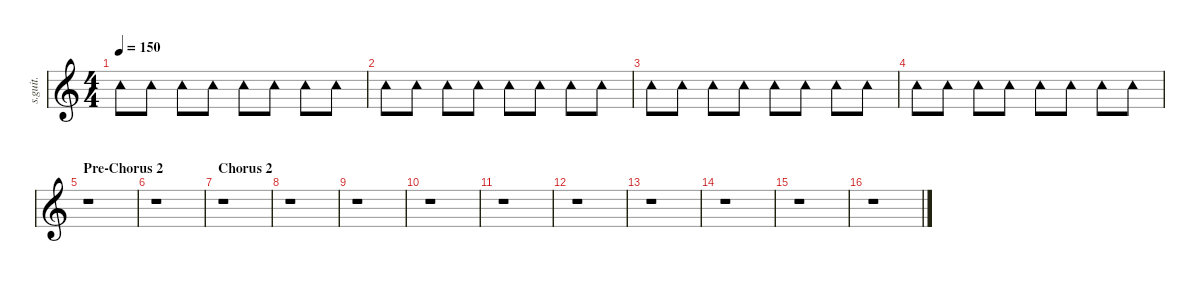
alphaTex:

\defaultSystemsLayout 4
\hideDynamics
\bracketExtendMode nobrackets
\track ("Synth Drums 2" "s.guit.") {instrument percussion}
\staff {score}
\articulation defaults
\ts (4 4)
\tempo 150
\clef g2
\ks c "Tambourine (hit)".8{lyrics (0 "") lyrics (1 "") lyrics (2 "") lyrics (3 "") lyrics (4 "") dy f} "Tambourine (hit)".8{lyrics (0 "") lyrics (1 "") lyrics (2 "") lyrics (3 "") lyrics (4 "")} "Tambourine (hit)".8{lyrics (0 "") lyrics (1 "") lyrics (2 "") lyrics (3 "") lyrics (4 "")} "Tambourine (hit)".8{lyrics (0 "") lyrics (1 "") lyrics (2 "") lyrics (3 "") lyrics (4 "")} "Tambourine (hit)".8{lyrics (0 "") lyrics (1 "") lyrics (2 "") lyrics (3 "") lyrics (4 "")} "Tambourine (hit)".8{lyrics (0 "") lyrics (1 "") lyrics (2 "") lyrics (3 "") lyrics (4 "")} "Tambourine (hit)".8{lyrics (0 "") lyrics (1 "") lyrics (2 "") lyrics (3 "") lyrics (4 "")} "Tambourine (hit)".8{lyrics (0 "") lyrics (1 "") lyrics (2 "") lyrics (3 "") lyrics (4 "")}
|
"Tambourine (hit)".8{lyrics (0 "") lyrics (1 "") lyrics (2 "") lyrics (3 "") lyrics (4 "")} "Tambourine (hit)".8{lyrics (0 "") lyrics (1 "") lyrics (2 "") lyrics (3 "") lyrics (4 "")} "Tambourine (hit)".8{lyrics (0 "") lyrics (1 "") lyrics (2 "") lyrics (3 "") lyrics (4 "")} "Tambourine (hit)".8{lyrics (0 "") lyrics (1 "") lyrics (2 "") lyrics (3 "") lyrics (4 "")} "Tambourine (hit)".8{lyrics (0 "") lyrics (1 "") lyrics (2 "") lyrics (3 "") lyrics (4 "")} "Tambourine (hit)".8{lyrics (0 "") lyrics (1 "") lyrics (2 "") lyrics (3 "") lyrics (4 "")} "Tambourine (hit)".8{lyrics (0 "") lyrics (1 "") lyrics (2 "") lyrics (3 "") lyrics (4 "")} "Tambourine (hit)".8{lyrics (0 "") lyrics (1 "") lyrics (2 "") lyrics (3 "") lyrics (4 "")} |
"Tambourine (hit)".8{lyrics (0 "") lyrics (1 "") lyrics (2 "") lyrics (3 "") lyrics (4 "")} "Tambourine (hit)".8{lyrics (0 "") lyrics (1 "") lyrics (2 "") lyrics (3 "") lyrics (4 "")} "Tambourine (hit)".8{lyrics (0 "") lyrics (1 "") lyrics (2 "") lyrics (3 "") lyrics (4 "")} "Tambourine (hit)".8{lyrics (0 "") lyrics (1 "") lyrics (2 "") lyrics (3 "") lyrics (4 "")} "Tambourine (hit)".8{lyrics (0 "") lyrics (1 "") lyrics (2 "") lyrics (3 "") lyrics (4 "")} "Tambourine (hit)".8{lyrics (0 "") lyrics (1 "") lyrics (2 "") lyrics (3 "") lyrics (4 "")} "Tambourine (hit)".8{lyrics (0 "") lyrics (1 "") lyrics (2 "") lyrics (3 "") lyrics (4 "")} "Tambourine (hit)".8{lyrics (0 "") lyrics (1 "") lyrics (2 "") lyrics (3 "") lyrics (4 "")} |
"Tambourine (hit)".8{lyrics (0 "") lyrics (1 "") lyrics (2 "") lyrics (3 "") lyrics (4 "")} "Tambourine (hit)".8{lyrics (0 "") lyrics (1 "") lyrics (2 "") lyrics (3 "") lyrics (4 "")} "Tambourine (hit)".8{lyrics (0 "") lyrics (1 "") lyrics (2 "") lyrics (3 "") lyrics (4 "")} "Tambourine (hit)".8{lyrics (0 "") lyrics (1 "") lyrics (2 "") lyrics (3 "") lyrics (4 "")} "Tambourine (hit)".8{lyrics (0 "") lyrics (1 "") lyrics (2 "") lyrics (3 "") lyrics (4 "")} "Tambourine (hit)".8{lyrics (0 "") lyrics (1 "") lyrics (2 "") lyrics (3 "") lyrics (4 "")} "Tambourine (hit)".8{lyrics (0 "") lyrics (1 "") lyrics (2 "") lyrics (3 "") lyrics (4 "")} "Tambourine (hit)".8{lyrics (0 "") lyrics (1 "") lyrics (2 "") lyrics (3 "") lyrics (4 "")} |
\section ("" "Pre-Chorus 2")
r.1 |
r.1 |
\section ("" "Chorus 2")
r.1 |
r.1 |
r.1 |
r.1 |
r.1 |
r.1 |
r.1 |
r.1 |
r.1 |
r.1
